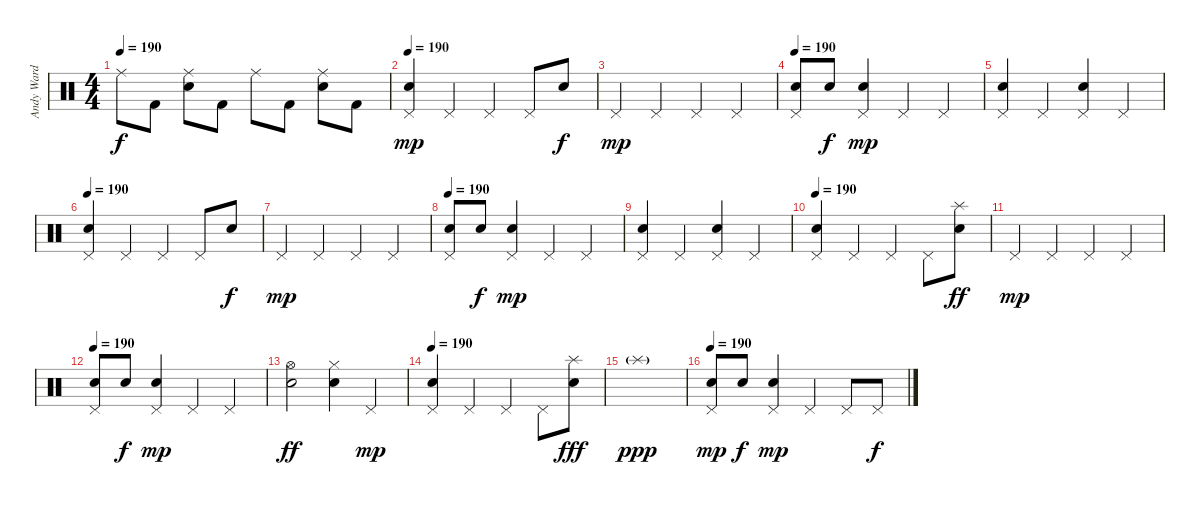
\track ("Andy Ward" "Andy Ward") {instrument percussion}
\staff {score}
\articulation defaults
\ts (4 4)
\tempo 190
\clef neutral
\ks c "Ride (middle)".8{dy f} "Kick (hit) 2".8
("Ride (middle)" "Snare (hit) 2").8 "Kick (hit) 2".8 "Ride (middle)".8 "Kick (hit) 2".8 ("Ride (middle)" "Snare (hit) 2").8 "Kick (hit) 2".8 |
\tempo 190
("Pedal Hi-Hat (hit)" "Snare (hit) 2").4{dy mp} "Pedal Hi-Hat (hit)".4 "Pedal Hi-Hat (hit)".4 "Pedal Hi-Hat (hit)".8 "Snare (hit) 2".8{dy f} |
"Pedal Hi-Hat (hit)".4{dy mp} "Pedal Hi-Hat (hit)".4 "Pedal Hi-Hat (hit)".4 "Pedal Hi-Hat (hit)".4 |
\tempo 190
("Pedal Hi-Hat (hit)" "Snare (hit) 2").8 "Snare (hit) 2".8{dy f} ("Pedal Hi-Hat (hit)" "Snare (hit) 2").4{dy mp} "Pedal Hi-Hat (hit)".4 "Pedal Hi-Hat (hit)".4 |
("Pedal Hi-Hat (hit)" "Snare (hit) 2").4 "Pedal Hi-Hat (hit)".4 ("Pedal Hi-Hat (hit)" "Snare (hit) 2").4 "Pedal Hi-Hat (hit)".4 |
\tempo 190
("Pedal Hi-Hat (hit)" "Snare (hit) 2").4 "Pedal Hi-Hat (hit)".4 "Pedal Hi-Hat (hit)".4 "Pedal Hi-Hat (hit)".8 "Snare (hit) 2".8{dy f} |
"Pedal Hi-Hat (hit)".4{dy mp} "Pedal Hi-Hat (hit)".4 "Pedal Hi-Hat (hit)".4 "Pedal Hi-Hat (hit)".4 |
\tempo 190
("Pedal Hi-Hat (hit)" "Snare (hit) 2").8 "Snare (hit) 2".8{dy f} ("Pedal Hi-Hat (hit)" "Snare (hit) 2").4{dy mp} "Pedal Hi-Hat (hit)".4 "Pedal Hi-Hat (hit)".4 |
("Pedal Hi-Hat (hit)" "Snare (hit) 2").4 "Pedal Hi-Hat (hit)".4 ("Pedal Hi-Hat (hit)" "Snare (hit) 2").4 "Pedal Hi-Hat (hit)".4 |
\tempo 190
("Pedal Hi-Hat (hit)" "Snare (hit) 2").4 "Pedal Hi-Hat (hit)".4 "Pedal Hi-Hat (hit)".4 "Pedal Hi-Hat (hit)".8 ("Splash (hit)" "Snare (hit) 2").8{dy ff} |
"Pedal Hi-Hat (hit)".4{dy mp} "Pedal Hi-Hat (hit)".4 "Pedal Hi-Hat (hit)".4 "Pedal Hi-Hat (hit)".4 |
\tempo 190
("Pedal Hi-Hat (hit)" "Snare (hit) 2").8 "Snare (hit) 2".8{dy f} ("Pedal Hi-Hat (hit)" "Snare (hit) 2").4{dy mp} "Pedal Hi-Hat (hit)".4 "Pedal Hi-Hat (hit)".4 |
("Hi-Hat (open)" "Snare (hit) 2").2{dy ff} ("Hi-Hat (closed)" "Snare (hit) 2").4 "Pedal Hi-Hat (hit)".4{dy mp} |
\tempo 190
("Pedal Hi-Hat (hit)" "Snare (hit) 2").4 "Pedal Hi-Hat (hit)".4 "Pedal Hi-Hat (hit)".4 "Pedal Hi-Hat (hit)".8 ("Splash (hit)" "Snare (hit) 2").8{dy fff} |
"Splash (hit)"{g}.1{dy ppp} |
\tempo 190
("Pedal Hi-Hat (hit)" "Snare (hit) 2").8{dy mp} "Snare (hit) 2".8{dy f} ("Pedal Hi-Hat (hit)" "Snare (hit) 2").4{dy mp} "Pedal Hi-Hat (hit)".4 "Pedal Hi-Hat (hit)".8 "Pedal Hi-Hat (hit)".8{dy f}
